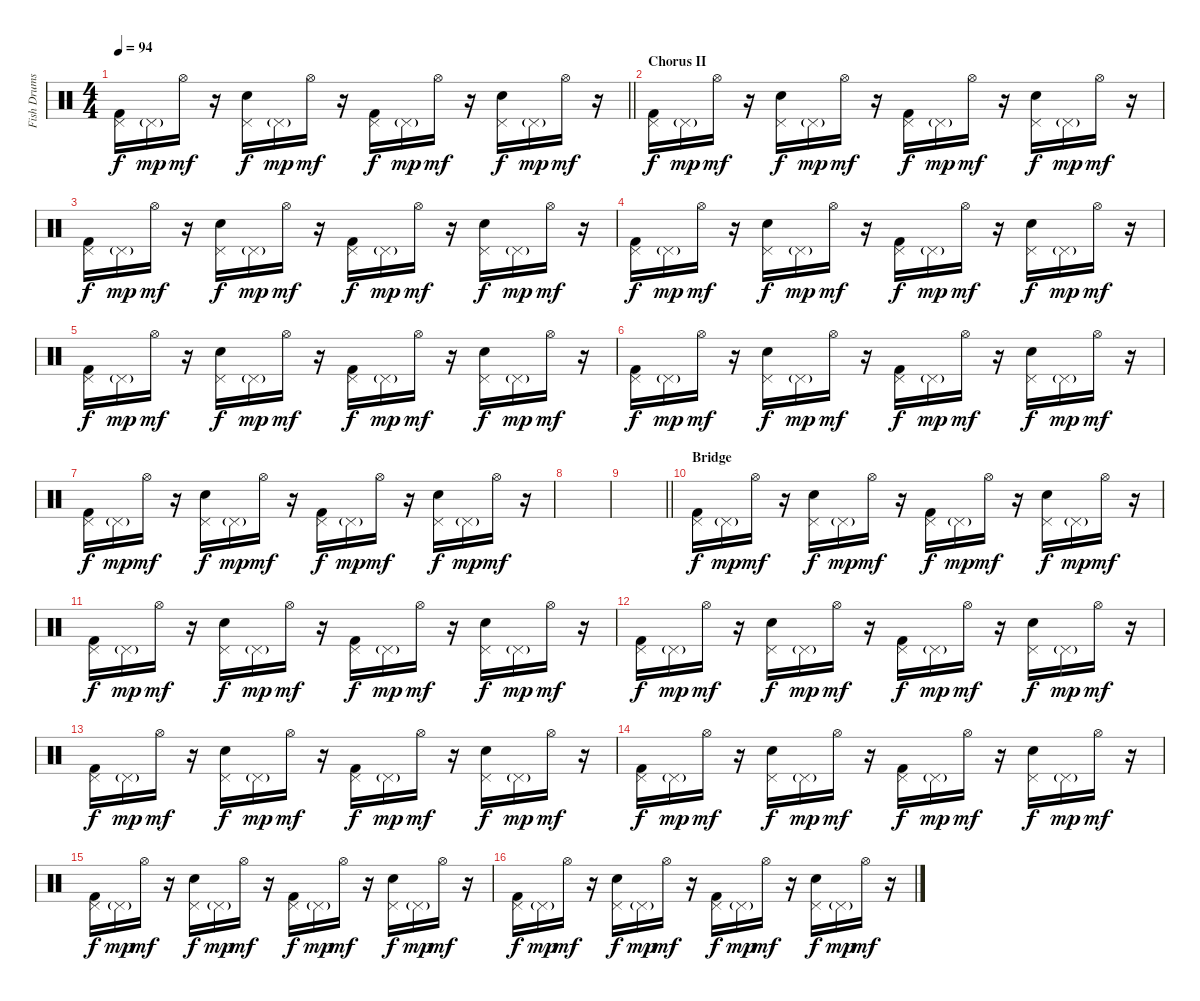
\track ("Fish Drums" "Fish Drums") {instrument percussion}
\staff {score}
\articulation defaults
\ts (4 4)
\tempo 94
\clef neutral
\barLineRight lightlight
\ks c
("Pedal Hi-Hat (hit)" "Kick (hit) 2").16{dy f} "Pedal Hi-Hat (hit)"{g}.16{dy mp} "Hi-Hat (open)".16{dy mf} r.16 ("Pedal Hi-Hat (hit)" "Snare (hit) 2").16{dy f} "Pedal Hi-Hat (hit)"{g}.16{dy mp} "Hi-Hat (open)".16{dy mf} r.16 ("Pedal Hi-Hat (hit)" "Kick (hit) 2").16{dy f} "Pedal Hi-Hat (hit)"{g}.16{dy mp} "Hi-Hat (open)".16{dy mf} r.16 ("Pedal Hi-Hat (hit)" "Snare (hit) 2").16{dy f} "Pedal Hi-Hat (hit)"{g}.16{dy mp} "Hi-Hat (open)".16{dy mf} r.16 |
\section ("" "Chorus II")
("Pedal Hi-Hat (hit)" "Kick (hit) 2").16{dy f} "Pedal Hi-Hat (hit)"{g}.16{dy mp} "Hi-Hat (open)".16{dy mf} r.16 ("Pedal Hi-Hat (hit)" "Snare (hit) 2").16{dy f} "Pedal Hi-Hat (hit)"{g}.16{dy mp} "Hi-Hat (open)".16{dy mf} r.16 ("Pedal Hi-Hat (hit)" "Kick (hit) 2").16{dy f} "Pedal Hi-Hat (hit)"{g}.16{dy mp} "Hi-Hat (open)".16{dy mf} r.16 ("Pedal Hi-Hat (hit)" "Snare (hit) 2").16{dy f} "Pedal Hi-Hat (hit)"{g}.16{dy mp} "Hi-Hat (open)".16{dy mf} r.16 |
("Pedal Hi-Hat (hit)" "Kick (hit) 2").16{dy f} "Pedal Hi-Hat (hit)"{g}.16{dy mp} "Hi-Hat (open)".16{dy mf} r.16 ("Pedal Hi-Hat (hit)" "Snare (hit) 2").16{dy f} "Pedal Hi-Hat (hit)"{g}.16{dy mp} "Hi-Hat (open)".16{dy mf} r.16 ("Pedal Hi-Hat (hit)" "Kick (hit) 2").16{dy f} "Pedal Hi-Hat (hit)"{g}.16{dy mp} "Hi-Hat (open)".16{dy mf} r.16 ("Pedal Hi-Hat (hit)" "Snare (hit) 2").16{dy f} "Pedal Hi-Hat (hit)"{g}.16{dy mp} "Hi-Hat (open)".16{dy mf} r.16 |
("Pedal Hi-Hat (hit)" "Kick (hit) 2").16{dy f} "Pedal Hi-Hat (hit)"{g}.16{dy mp} "Hi-Hat (open)".16{dy mf} r.16 ("Pedal Hi-Hat (hit)" "Snare (hit) 2").16{dy f} "Pedal Hi-Hat (hit)"{g}.16{dy mp} "Hi-Hat (open)".16{dy mf} r.16 ("Pedal Hi-Hat (hit)" "Kick (hit) 2").16{dy f} "Pedal Hi-Hat (hit)"{g}.16{dy mp} "Hi-Hat (open)".16{dy mf} r.16 ("Pedal Hi-Hat (hit)" "Snare (hit) 2").16{dy f} "Pedal Hi-Hat (hit)"{g}.16{dy mp} "Hi-Hat (open)".16{dy mf} r.16 |
("Pedal Hi-Hat (hit)" "Kick (hit) 2").16{dy f} "Pedal Hi-Hat (hit)"{g}.16{dy mp} "Hi-Hat (open)".16{dy mf} r.16 ("Pedal Hi-Hat (hit)" "Snare (hit) 2").16{dy f} "Pedal Hi-Hat (hit)"{g}.16{dy mp} "Hi-Hat (open)".16{dy mf} r.16 ("Pedal Hi-Hat (hit)" "Kick (hit) 2").16{dy f} "Pedal Hi-Hat (hit)"{g}.16{dy mp} "Hi-Hat (open)".16{dy mf} r.16 ("Pedal Hi-Hat (hit)" "Snare (hit) 2").16{dy f} "Pedal Hi-Hat (hit)"{g}.16{dy mp} "Hi-Hat (open)".16{dy mf} r.16 |
("Pedal Hi-Hat (hit)" "Kick (hit) 2").16{dy f} "Pedal Hi-Hat (hit)"{g}.16{dy mp} "Hi-Hat (open)".16{dy mf} r.16 ("Pedal Hi-Hat (hit)" "Snare (hit) 2").16{dy f} "Pedal Hi-Hat (hit)"{g}.16{dy mp} "Hi-Hat (open)".16{dy mf} r.16 ("Pedal Hi-Hat (hit)" "Kick (hit) 2").16{dy f} "Pedal Hi-Hat (hit)"{g}.16{dy mp} "Hi-Hat (open)".16{dy mf} r.16 ("Pedal Hi-Hat (hit)" "Snare (hit) 2").16{dy f} "Pedal Hi-Hat (hit)"{g}.16{dy mp} "Hi-Hat (open)".16{dy mf} r.16 |
("Pedal Hi-Hat (hit)" "Kick (hit) 2").16{dy f} "Pedal Hi-Hat (hit)"{g}.16{dy mp} "Hi-Hat (open)".16{dy mf} r.16 ("Pedal Hi-Hat (hit)" "Snare (hit) 2").16{dy f} "Pedal Hi-Hat (hit)"{g}.16{dy mp} "Hi-Hat (open)".16{dy mf} r.16 ("Pedal Hi-Hat (hit)" "Kick (hit) 2").16{dy f} "Pedal Hi-Hat (hit)"{g}.16{dy mp} "Hi-Hat (open)".16{dy mf} r.16 ("Pedal Hi-Hat (hit)" "Snare (hit) 2").16{dy f} "Pedal Hi-Hat (hit)"{g}.16{dy mp} "Hi-Hat (open)".16{dy mf} r.16 |
|
\barLineRight lightlight
|
\section ("" "Bridge")
("Pedal Hi-Hat (hit)" "Kick (hit) 2").16{dy f} "Pedal Hi-Hat (hit)"{g}.16{dy mp} "Hi-Hat (open)".16{dy mf} r.16 ("Pedal Hi-Hat (hit)" "Snare (hit) 2").16{dy f} "Pedal Hi-Hat (hit)"{g}.16{dy mp} "Hi-Hat (open)".16{dy mf} r.16 ("Pedal Hi-Hat (hit)" "Kick (hit) 2").16{dy f} "Pedal Hi-Hat (hit)"{g}.16{dy mp} "Hi-Hat (open)".16{dy mf} r.16 ("Pedal Hi-Hat (hit)" "Snare (hit) 2").16{dy f} "Pedal Hi-Hat (hit)"{g}.16{dy mp} "Hi-Hat (open)".16{dy mf} r.16 |
("Pedal Hi-Hat (hit)" "Kick (hit) 2").16{dy f} "Pedal Hi-Hat (hit)"{g}.16{dy mp} "Hi-Hat (open)".16{dy mf} r.16 ("Pedal Hi-Hat (hit)" "Snare (hit) 2").16{dy f} "Pedal Hi-Hat (hit)"{g}.16{dy mp} "Hi-Hat (open)".16{dy mf} r.16 ("Pedal Hi-Hat (hit)" "Kick (hit) 2").16{dy f} "Pedal Hi-Hat (hit)"{g}.16{dy mp} "Hi-Hat (open)".16{dy mf} r.16 ("Pedal Hi-Hat (hit)" "Snare (hit) 2").16{dy f} "Pedal Hi-Hat (hit)"{g}.16{dy mp} "Hi-Hat (open)".16{dy mf} r.16 |
("Pedal Hi-Hat (hit)" "Kick (hit) 2").16{dy f} "Pedal Hi-Hat (hit)"{g}.16{dy mp} "Hi-Hat (open)".16{dy mf} r.16 ("Pedal Hi-Hat (hit)" "Snare (hit) 2").16{dy f} "Pedal Hi-Hat (hit)"{g}.16{dy mp} "Hi-Hat (open)".16{dy mf} r.16 ("Pedal Hi-Hat (hit)" "Kick (hit) 2").16{dy f} "Pedal Hi-Hat (hit)"{g}.16{dy mp} "Hi-Hat (open)".16{dy mf} r.16 ("Pedal Hi-Hat (hit)" "Snare (hit) 2").16{dy f} "Pedal Hi-Hat (hit)"{g}.16{dy mp} "Hi-Hat (open)".16{dy mf} r.16 |
("Pedal Hi-Hat (hit)" "Kick (hit) 2").16{dy f} "Pedal Hi-Hat (hit)"{g}.16{dy mp} "Hi-Hat (open)".16{dy mf} r.16 ("Pedal Hi-Hat (hit)" "Snare (hit) 2").16{dy f} "Pedal Hi-Hat (hit)"{g}.16{dy mp} "Hi-Hat (open)".16{dy mf} r.16 ("Pedal Hi-Hat (hit)" "Kick (hit) 2").16{dy f} "Pedal Hi-Hat (hit)"{g}.16{dy mp} "Hi-Hat (open)".16{dy mf} r.16 ("Pedal Hi-Hat (hit)" "Snare (hit) 2").16{dy f} "Pedal Hi-Hat (hit)"{g}.16{dy mp} "Hi-Hat (open)".16{dy mf} r.16 |
("Pedal Hi-Hat (hit)" "Kick (hit) 2").16{dy f} "Pedal Hi-Hat (hit)"{g}.16{dy mp} "Hi-Hat (open)".16{dy mf} r.16 ("Pedal Hi-Hat (hit)" "Snare (hit) 2").16{dy f} "Pedal Hi-Hat (hit)"{g}.16{dy mp} "Hi-Hat (open)".16{dy mf} r.16 ("Pedal Hi-Hat (hit)" "Kick (hit) 2").16{dy f} "Pedal Hi-Hat (hit)"{g}.16{dy mp} "Hi-Hat (open)".16{dy mf} r.16 ("Pedal Hi-Hat (hit)" "Snare (hit) 2").16{dy f} "Pedal Hi-Hat (hit)"{g}.16{dy mp} "Hi-Hat (open)".16{dy mf} r.16 |
("Pedal Hi-Hat (hit)" "Kick (hit) 2").16{dy f} "Pedal Hi-Hat (hit)"{g}.16{dy mp} "Hi-Hat (open)".16{dy mf} r.16 ("Pedal Hi-Hat (hit)" "Snare (hit) 2").16{dy f} "Pedal Hi-Hat (hit)"{g}.16{dy mp} "Hi-Hat (open)".16{dy mf} r.16 ("Pedal Hi-Hat (hit)" "Kick (hit) 2").16{dy f} "Pedal Hi-Hat (hit)"{g}.16{dy mp} "Hi-Hat (open)".16{dy mf} r.16 ("Pedal Hi-Hat (hit)" "Snare (hit) 2").16{dy f} "Pedal Hi-Hat (hit)"{g}.16{dy mp} "Hi-Hat (open)".16{dy mf} r.16 |
("Pedal Hi-Hat (hit)" "Kick (hit) 2").16{dy f} "Pedal Hi-Hat (hit)"{g}.16{dy mp} "Hi-Hat (open)".16{dy mf} r.16 ("Pedal Hi-Hat (hit)" "Snare (hit) 2").16{dy f} "Pedal Hi-Hat (hit)"{g}.16{dy mp} "Hi-Hat (open)".16{dy mf} r.16 ("Pedal Hi-Hat (hit)" "Kick (hit) 2").16{dy f} "Pedal Hi-Hat (hit)"{g}.16{dy mp} "Hi-Hat (open)".16{dy mf} r.16 ("Pedal Hi-Hat (hit)" "Snare (hit) 2").16{dy f} "Pedal Hi-Hat (hit)"{g}.16{dy mp} "Hi-Hat (open)".16{dy mf} r.16
